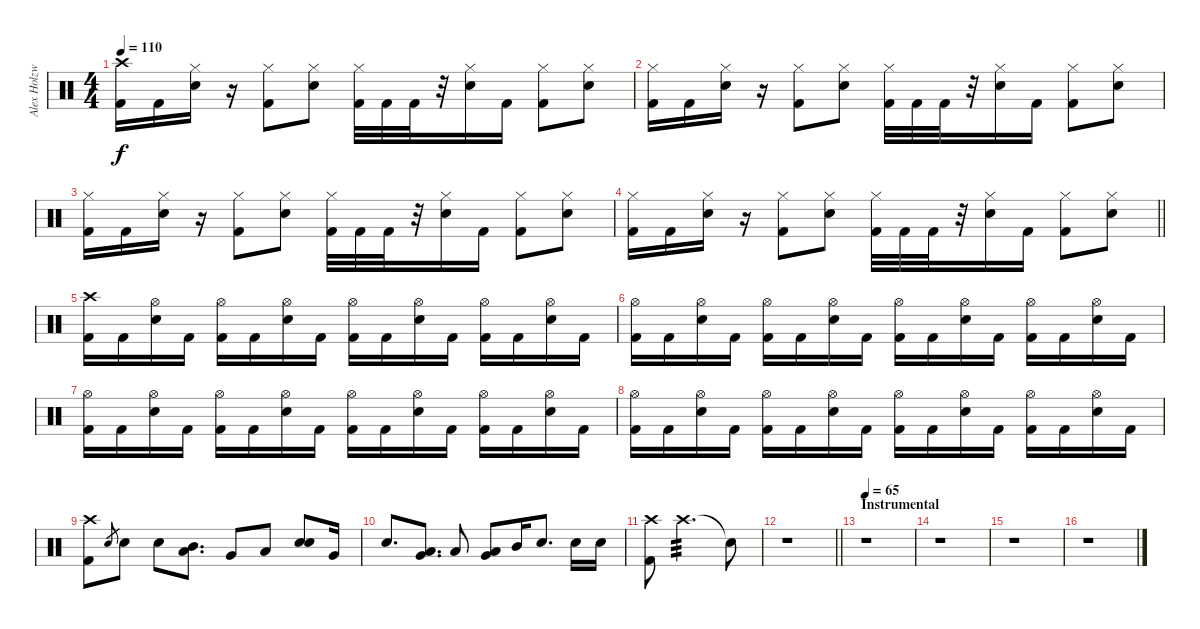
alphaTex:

\track ("Alex Holzwarth (Drums)" "Alex Holzw") {instrument percussion}
\staff {score}
\articulation defaults
\ts (4 4)
\tempo 110
\clef neutral
\ks c
("Crash high (hit)" "Kick (hit) 2").16{dy f} "Kick (hit) 2".16 ("Hi-Hat (closed)" "Electric Snare (hit)").16 r.16 ("Hi-Hat (closed)" "Kick (hit) 2").8 ("Hi-Hat (closed)" "Electric Snare (hit)").8 ("Hi-Hat (closed)" "Kick (hit) 2").32 "Kick (hit) 2".32 "Kick (hit) 2".32 r.32 ("Hi-Hat (closed)" "Electric Snare (hit)").16 "Kick (hit) 2".16 ("Hi-Hat (closed)" "Kick (hit) 2").8 ("Hi-Hat (closed)" "Electric Snare (hit)").8 |
("Hi-Hat (closed)" "Kick (hit) 2").16 "Kick (hit) 2".16 ("Hi-Hat (closed)" "Electric Snare (hit)").16 r.16 ("Hi-Hat (closed)" "Kick (hit) 2").8 ("Hi-Hat (closed)" "Electric Snare (hit)").8 ("Hi-Hat (closed)" "Kick (hit) 2").32 "Kick (hit) 2".32 "Kick (hit) 2".32 r.32 ("Hi-Hat (closed)" "Electric Snare (hit)").16 "Kick (hit) 2".16 ("Hi-Hat (closed)" "Kick (hit) 2").8 ("Hi-Hat (closed)" "Electric Snare (hit)").8 |
("Hi-Hat (closed)" "Kick (hit) 2").16 "Kick (hit) 2".16 ("Hi-Hat (closed)" "Electric Snare (hit)").16 r.16 ("Hi-Hat (closed)" "Kick (hit) 2").8 ("Hi-Hat (closed)" "Electric Snare (hit)").8 ("Hi-Hat (closed)" "Kick (hit) 2").32 "Kick (hit) 2".32 "Kick (hit) 2".32 r.32 ("Hi-Hat (closed)" "Electric Snare (hit)").16 "Kick (hit) 2".16 ("Hi-Hat (closed)" "Kick (hit) 2").8 ("Hi-Hat (closed)" "Electric Snare (hit)").8 |
\barLineRight lightlight
("Hi-Hat (closed)" "Kick (hit) 2").16 "Kick (hit) 2".16 ("Hi-Hat (closed)" "Electric Snare (hit)").16 r.16 ("Hi-Hat (closed)" "Kick (hit) 2").8 ("Hi-Hat (closed)" "Electric Snare (hit)").8 ("Hi-Hat (closed)" "Kick (hit) 2").32 "Kick (hit) 2".32 "Kick (hit) 2".32 r.32 ("Hi-Hat (closed)" "Electric Snare (hit)").16 "Kick (hit) 2".16 ("Hi-Hat (closed)" "Kick (hit) 2").8 ("Hi-Hat (closed)" "Electric Snare (hit)").8 |
("Crash high (hit)" "Kick (hit) 2").16 "Kick (hit) 2".16 ("Hi-Hat (open)" "Electric Snare (hit)").16 "Kick (hit) 2".16 ("Hi-Hat (open)" "Kick (hit) 2").16 "Kick (hit) 2".16 ("Hi-Hat (open)" "Electric Snare (hit)").16 "Kick (hit) 2".16 ("Hi-Hat (open)" "Kick (hit) 2").16 "Kick (hit) 2".16 ("Hi-Hat (open)" "Electric Snare (hit)").16 "Kick (hit) 2".16 ("Hi-Hat (open)" "Kick (hit) 2").16 "Kick (hit) 2".16 ("Hi-Hat (open)" "Electric Snare (hit)").16 "Kick (hit) 2".16 |
("Hi-Hat (open)" "Kick (hit) 2").16 "Kick (hit) 2".16 ("Hi-Hat (open)" "Electric Snare (hit)").16 "Kick (hit) 2".16 ("Hi-Hat (open)" "Kick (hit) 2").16 "Kick (hit) 2".16 ("Hi-Hat (open)" "Electric Snare (hit)").16 "Kick (hit) 2".16 ("Hi-Hat (open)" "Kick (hit) 2").16 "Kick (hit) 2".16 ("Hi-Hat (open)" "Electric Snare (hit)").16 "Kick (hit) 2".16 ("Hi-Hat (open)" "Kick (hit) 2").16 "Kick (hit) 2".16 ("Hi-Hat (open)" "Electric Snare (hit)").16 "Kick (hit) 2".16 |
("Hi-Hat (open)" "Kick (hit) 2").16 "Kick (hit) 2".16 ("Hi-Hat (open)" "Electric Snare (hit)").16 "Kick (hit) 2".16 ("Hi-Hat (open)" "Kick (hit) 2").16 "Kick (hit) 2".16 ("Hi-Hat (open)" "Electric Snare (hit)").16 "Kick (hit) 2".16 ("Hi-Hat (open)" "Kick (hit) 2").16 "Kick (hit) 2".16 ("Hi-Hat (open)" "Electric Snare (hit)").16 "Kick (hit) 2".16 ("Hi-Hat (open)" "Kick (hit) 2").16 "Kick (hit) 2".16 ("Hi-Hat (open)" "Electric Snare (hit)").16 "Kick (hit) 2".16 |
("Hi-Hat (open)" "Kick (hit) 2").16 "Kick (hit) 2".16 ("Hi-Hat (open)" "Electric Snare (hit)").16 "Kick (hit) 2".16 ("Hi-Hat (open)" "Kick (hit) 2").16 "Kick (hit) 2".16 ("Hi-Hat (open)" "Electric Snare (hit)").16 "Kick (hit) 2".16 ("Hi-Hat (open)" "Kick (hit) 2").16 "Kick (hit) 2".16 ("Hi-Hat (open)" "Electric Snare (hit)").16 "Kick (hit) 2".16 ("Hi-Hat (open)" "Kick (hit) 2").16 "Kick (hit) 2".16 ("Hi-Hat (open)" "Electric Snare (hit)").16 "Kick (hit) 2".16 |
("Crash high (hit)" "Kick (hit) 2").8 "Electric Snare (hit)".8{gr} "Electric Snare (hit)".8 "Electric Snare (hit)".8 ("Mid Tom (hit)" "Low Tom (hit)").8{d} "Very Low Tom (hit)".8 "Low Floor Tom (hit)".8 ("Electric Snare (hit)" "Electric Snare (hit)").8 "Very Low Tom (hit)".16 |
"Electric Snare (hit)".8{d} ("Very Low Tom (hit)" "Low Tom (hit)").8{d} "Low Floor Tom (hit)".8 ("Very Low Tom (hit)" "Low Tom (hit)").8 "Mid Tom (hit)".16 "Electric Snare (hit)".8{d} "Electric Snare (hit)".16 "Electric Snare (hit)".16 |
("Crash high (hit)" "Kick (hit) 2").8 "Crash high (hit)".2{d tp 3 volume 3} "Snare (hit)"{t}.8 |
\barLineRight lightlight
r.1 |
\section ("" "Instrumental")
\tempo 65
r.1 |
r.1 |
r.1 |
r.1
